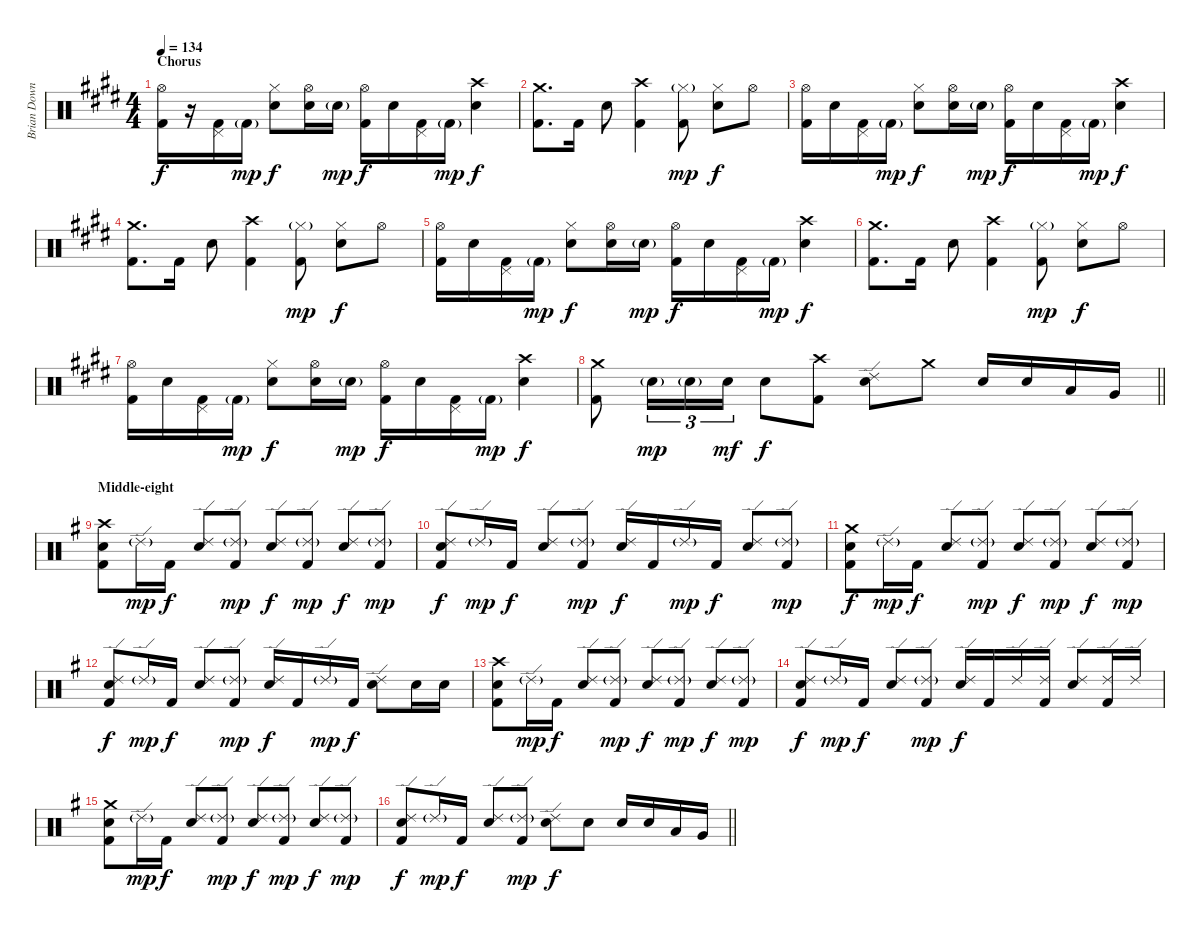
\track ("Brian Downey" "Brian Down") {instrument percussion}
\staff {score}
\articulation defaults
\ts (4 4)
\section ("" "Chorus")
\tempo 134
\clef neutral
\ks e
("Hi-Hat (open)" "Kick (hit) 2").16{dy f} r.16 ("Pedal Hi-Hat (hit)" "Kick (hit) 2").16 "Kick (hit) 2"{g}.16{dy mp} ("Hi-Hat (closed)" "Electric Snare (hit)").8{dy f} ("Hi-Hat (open)" "Electric Snare (hit)").16 "Electric Snare (hit)"{g}.16{dy mp} ("Hi-Hat (open)" "Kick (hit) 2").16{dy f} "Electric Snare (hit)".16 ("Pedal Hi-Hat (hit)" "Kick (hit) 2").16 "Kick (hit) 2"{g}.16{dy mp} ("Crash high (hit)" "Electric Snare (hit)").4{dy f} |
("Crash medium (hit)" "Kick (hit) 2").8{d} "Kick (hit) 2".16 "Electric Snare (hit)".8 ("Crash high (hit)" "Kick (hit) 2").4 ("Hi-Hat (closed)"{g} "Kick (hit) 2").8{dy mp} ("Hi-Hat (closed)" "Electric Snare (hit)").8{dy f} "Hi-Hat (open)".8 |
("Hi-Hat (open)" "Kick (hit) 2").16 "Electric Snare (hit)".16 ("Pedal Hi-Hat (hit)" "Kick (hit) 2").16 "Kick (hit) 2"{g}.16{dy mp} ("Hi-Hat (closed)" "Electric Snare (hit)").8{dy f} ("Hi-Hat (open)" "Electric Snare (hit)").16 "Electric Snare (hit)"{g}.16{dy mp} ("Hi-Hat (open)" "Kick (hit) 2").16{dy f} "Electric Snare (hit)".16 ("Pedal Hi-Hat (hit)" "Kick (hit) 2").16 "Kick (hit) 2"{g}.16{dy mp} ("Crash high (hit)" "Electric Snare (hit)").4{dy f} |
("Crash medium (hit)" "Kick (hit) 2").8{d} "Kick (hit) 2".16 "Electric Snare (hit)".8 ("Crash high (hit)" "Kick (hit) 2").4 ("Hi-Hat (closed)"{g} "Kick (hit) 2").8{dy mp} ("Hi-Hat (closed)" "Electric Snare (hit)").8{dy f} "Hi-Hat (open)".8 |
("Hi-Hat (open)" "Kick (hit) 2").16 "Electric Snare (hit)".16 ("Pedal Hi-Hat (hit)" "Kick (hit) 2").16 "Kick (hit) 2"{g}.16{dy mp} ("Hi-Hat (closed)" "Electric Snare (hit)").8{dy f} ("Hi-Hat (open)" "Electric Snare (hit)").16 "Electric Snare (hit)"{g}.16{dy mp} ("Hi-Hat (open)" "Kick (hit) 2").16{dy f} "Electric Snare (hit)".16 ("Pedal Hi-Hat (hit)" "Kick (hit) 2").16 "Kick (hit) 2"{g}.16{dy mp} ("Crash high (hit)" "Electric Snare (hit)").4{dy f} |
("Crash medium (hit)" "Kick (hit) 2").8{d} "Kick (hit) 2".16 "Electric Snare (hit)".8 ("Crash high (hit)" "Kick (hit) 2").4 ("Hi-Hat (closed)"{g} "Kick (hit) 2").8{dy mp} ("Hi-Hat (closed)" "Electric Snare (hit)").8{dy f} "Hi-Hat (open)".8 |
("Hi-Hat (open)" "Kick (hit) 2").16 "Electric Snare (hit)".16 ("Pedal Hi-Hat (hit)" "Kick (hit) 2").16 "Kick (hit) 2"{g}.16{dy mp} ("Hi-Hat (closed)" "Electric Snare (hit)").8{dy f} ("Hi-Hat (open)" "Electric Snare (hit)").16 "Electric Snare (hit)"{g}.16{dy mp} ("Hi-Hat (open)" "Kick (hit) 2").16{dy f} "Electric Snare (hit)".16 ("Pedal Hi-Hat (hit)" "Kick (hit) 2").16 "Kick (hit) 2"{g}.16{dy mp} ("Crash high (hit)" "Electric Snare (hit)").4{dy f} |
\barLineRight lightlight
("Crash medium (hit)" "Kick (hit) 2").8 "Electric Snare (hit)"{g}.16{tu (3 2) dy mp} "Electric Snare (hit)"{g}.16{tu (3 2)} "Electric Snare (hit)".16{tu (3 2) dy mf} "Electric Snare (hit)".8{dy f} ("Crash high (hit)" "Kick (hit) 2").8 ("Ride (edge) 2" "Electric Snare (hit)").8 "Crash medium (hit)".8 "Electric Snare (hit)".16 "Electric Snare (hit)".16 "Low Tom (hit)".16 "Very Low Tom (hit)".16 |
\section ("" "Middle-eight")
\ks g
("Crash high (hit)" "Electric Snare (hit)" "Kick (hit) 2").8 "Ride (edge) 2"{g}.16{dy mp} "Kick (hit) 2".16{dy f} ("Ride (edge) 2" "Electric Snare (hit)").8 ("Ride (edge) 2"{g} "Kick (hit) 2").8{dy mp} ("Ride (edge) 2" "Electric Snare (hit)").8{dy f} ("Ride (edge) 2"{g} "Kick (hit) 2").8{dy mp} ("Ride (edge) 2" "Electric Snare (hit)").8{dy f} ("Ride (edge) 2"{g} "Kick (hit) 2").8{dy mp} |
("Ride (edge) 2" "Electric Snare (hit)" "Kick (hit) 2").8{dy f} "Ride (edge) 2"{g}.16{dy mp} "Kick (hit) 2".16{dy f} ("Ride (edge) 2" "Electric Snare (hit)").8 ("Ride (edge) 2"{g} "Kick (hit) 2").8{dy mp} ("Ride (edge) 2" "Electric Snare (hit)").16{dy f} "Kick (hit) 2".16 "Ride (edge) 2"{g}.16{dy mp} "Kick (hit) 2".16{dy f} ("Ride (edge) 2" "Electric Snare (hit)").8 ("Ride (edge) 2"{g} "Kick (hit) 2").8{dy mp} |
("Crash medium (hit)" "Electric Snare (hit)" "Kick (hit) 2").8{dy f} "Ride (edge) 2"{g}.16{dy mp} "Kick (hit) 2".16{dy f} ("Ride (edge) 2" "Electric Snare (hit)").8 ("Ride (edge) 2"{g} "Kick (hit) 2").8{dy mp} ("Ride (edge) 2" "Electric Snare (hit)").8{dy f} ("Ride (edge) 2"{g} "Kick (hit) 2").8{dy mp} ("Ride (edge) 2" "Electric Snare (hit)").8{dy f} ("Ride (edge) 2"{g} "Kick (hit) 2").8{dy mp} |
("Ride (edge) 2" "Electric Snare (hit)" "Kick (hit) 2").8{dy f} "Ride (edge) 2"{g}.16{dy mp} "Kick (hit) 2".16{dy f} ("Ride (edge) 2" "Electric Snare (hit)").8 ("Ride (edge) 2"{g} "Kick (hit) 2").8{dy mp} ("Ride (edge) 2" "Electric Snare (hit)").16{dy f} "Kick (hit) 2".16 "Ride (edge) 2"{g}.16{dy mp} "Kick (hit) 2".16{dy f} ("Ride (edge) 2" "Electric Snare (hit)").8 "Electric Snare (hit)".16 "Electric Snare (hit)".16 |
("Crash high (hit)" "Electric Snare (hit)" "Kick (hit) 2").8 "Ride (edge) 2"{g}.16{dy mp} "Kick (hit) 2".16{dy f} ("Ride (edge) 2" "Electric Snare (hit)").8 ("Ride (edge) 2"{g} "Kick (hit) 2").8{dy mp} ("Ride (edge) 2" "Electric Snare (hit)").8{dy f} ("Ride (edge) 2"{g} "Kick (hit) 2").8{dy mp} ("Ride (edge) 2" "Electric Snare (hit)").8{dy f} ("Ride (edge) 2"{g} "Kick (hit) 2").8{dy mp} |
("Ride (edge) 2" "Electric Snare (hit)" "Kick (hit) 2").8{dy f} "Ride (edge) 2"{g}.16{dy mp} "Kick (hit) 2".16{dy f} ("Ride (edge) 2" "Electric Snare (hit)").8 ("Ride (edge) 2"{g} "Kick (hit) 2").8{dy mp} ("Ride (edge) 2" "Electric Snare (hit)").16{dy f} "Kick (hit) 2".16 "Ride (edge) 2".16 ("Ride (edge) 2" "Kick (hit) 2").16 ("Ride (edge) 2" "Electric Snare (hit)").8 ("Ride (edge) 2" "Kick (hit) 2").16 "Ride (edge) 2".16 |
("Crash medium (hit)" "Electric Snare (hit)" "Kick (hit) 2").8 "Ride (edge) 2"{g}.16{dy mp} "Kick (hit) 2".16{dy f} ("Ride (edge) 2" "Electric Snare (hit)").8 ("Ride (edge) 2"{g} "Kick (hit) 2").8{dy mp} ("Ride (edge) 2" "Electric Snare (hit)").8{dy f} ("Ride (edge) 2"{g} "Kick (hit) 2").8{dy mp} ("Ride (edge) 2" "Electric Snare (hit)").8{dy f} ("Ride (edge) 2"{g} "Kick (hit) 2").8{dy mp} |
\barLineRight lightlight
("Ride (edge) 2" "Electric Snare (hit)" "Kick (hit) 2").8{dy f} "Ride (edge) 2"{g}.16{dy mp} "Kick (hit) 2".16{dy f} ("Ride (edge) 2" "Electric Snare (hit)").8 ("Ride (edge) 2"{g} "Kick (hit) 2").8{dy mp} ("Ride (edge) 2" "Electric Snare (hit)").8{dy f} "Electric Snare (hit)".8 "Electric Snare (hit)".16 "Electric Snare (hit)".16 "Low Tom (hit)".16 "Very Low Tom (hit)".16
